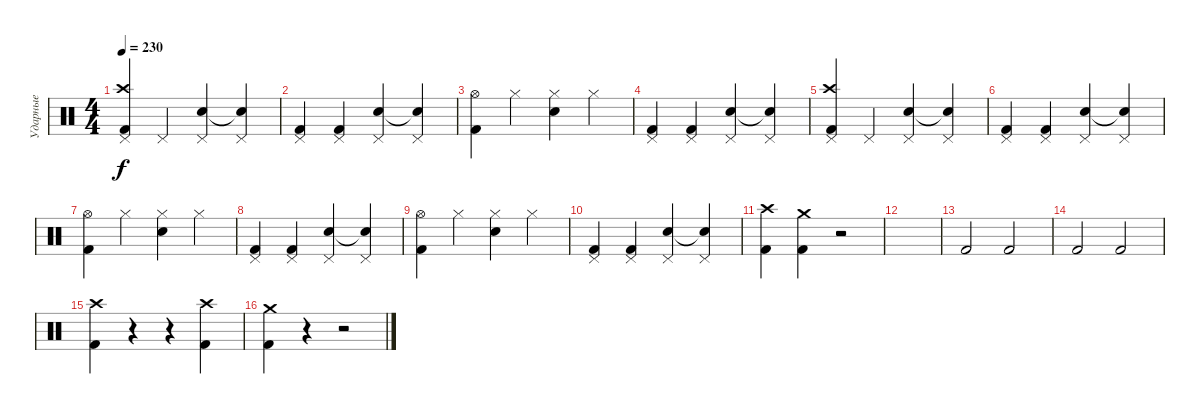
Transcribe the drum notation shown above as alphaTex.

\track ("Ударные" "Ударные") {instrument percussion}
\staff {score}
\articulation defaults
\ts (4 4)
\tempo 230
\clef neutral
\ks c
("Pedal Hi-Hat (hit)" "Crash high (hit)" "Kick (hit) 2").4{dy f} "Pedal Hi-Hat (hit)".4 ("Pedal Hi-Hat (hit)" "Electric Snare (hit)").4 ("Pedal Hi-Hat (hit)" "Electric Snare (hit)"{t}).4 |
("Pedal Hi-Hat (hit)" "Kick (hit) 2").4 ("Pedal Hi-Hat (hit)" "Kick (hit) 2").4 ("Pedal Hi-Hat (hit)" "Electric Snare (hit)").4 ("Pedal Hi-Hat (hit)" "Electric Snare (hit)"{t}).4 |
("Hi-Hat (open)" "Kick (hit) 2").4 "Hi-Hat (closed)".4 ("Hi-Hat (closed)" "Electric Snare (hit)").4 "Hi-Hat (closed)".4 |
("Pedal Hi-Hat (hit)" "Kick (hit) 2").4 ("Pedal Hi-Hat (hit)" "Kick (hit) 2").4 ("Pedal Hi-Hat (hit)" "Electric Snare (hit)").4 ("Pedal Hi-Hat (hit)" "Electric Snare (hit)"{t}).4 |
("Pedal Hi-Hat (hit)" "Crash high (hit)" "Kick (hit) 2").4 "Pedal Hi-Hat (hit)".4 ("Pedal Hi-Hat (hit)" "Electric Snare (hit)").4 ("Pedal Hi-Hat (hit)" "Electric Snare (hit)"{t}).4 |
("Pedal Hi-Hat (hit)" "Kick (hit) 2").4 ("Pedal Hi-Hat (hit)" "Kick (hit) 2").4 ("Pedal Hi-Hat (hit)" "Electric Snare (hit)").4 ("Pedal Hi-Hat (hit)" "Electric Snare (hit)"{t}).4 |
("Hi-Hat (open)" "Kick (hit) 2").4 "Hi-Hat (closed)".4 ("Hi-Hat (closed)" "Electric Snare (hit)").4 "Hi-Hat (closed)".4 |
("Pedal Hi-Hat (hit)" "Kick (hit) 2").4 ("Pedal Hi-Hat (hit)" "Kick (hit) 2").4 ("Pedal Hi-Hat (hit)" "Electric Snare (hit)").4 ("Pedal Hi-Hat (hit)" "Electric Snare (hit)"{t}).4 |
("Hi-Hat (open)" "Kick (hit) 2").4 "Hi-Hat (closed)".4 ("Hi-Hat (closed)" "Electric Snare (hit)").4 "Hi-Hat (closed)".4 |
("Pedal Hi-Hat (hit)" "Kick (hit) 2").4 ("Pedal Hi-Hat (hit)" "Kick (hit) 2").4 ("Pedal Hi-Hat (hit)" "Electric Snare (hit)").4 ("Pedal Hi-Hat (hit)" "Electric Snare (hit)"{t}).4 |
("Crash high (hit)" "Kick (hit) 2").4 ("Crash medium (hit)" "Kick (hit) 2").4 r.2 |
|
"Kick (hit) 2".2 "Kick (hit) 2".2 |
"Kick (hit) 2".2 "Kick (hit) 2".2 |
("Crash high (hit)" "Kick (hit) 2").4 r.4 r.4 ("Crash high (hit)" "Kick (hit) 2").4 |
("Crash medium (hit)" "Kick (hit) 2").4 r.4 r.2
